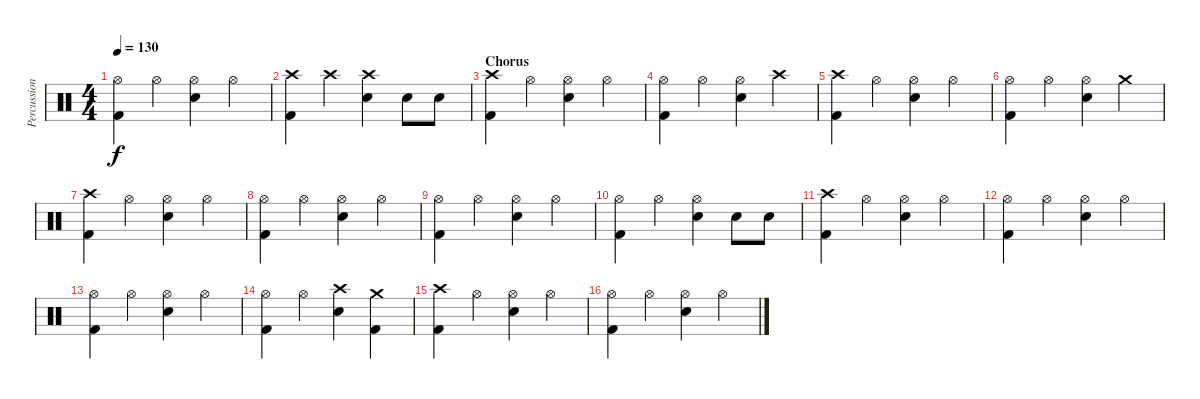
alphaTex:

\track ("Percussion" "Percussion") {instrument percussion}
\staff {score}
\articulation defaults
\ts (4 4)
\tempo 130
\clef neutral
\ks c
("Hi-Hat (open)" "Kick (hit) 2").4{dy f} "Hi-Hat (open)".4 ("Hi-Hat (open)" "Snare (hit) 2").4 "Hi-Hat (open)".4 |
("Crash high (hit)" "Kick (hit) 2").4 "Crash high (hit)".4 ("Crash high (hit)" "Snare (hit) 2").4 "Snare (hit) 2".8 "Snare (hit) 2".8 |
\section ("" "Chorus")
("Crash high (hit)" "Kick (hit) 2").4 "Hi-Hat (open)".4 ("Hi-Hat (open)" "Snare (hit) 2").4 "Hi-Hat (open)".4 |
("Hi-Hat (open)" "Kick (hit) 2").4 "Hi-Hat (open)".4 ("Hi-Hat (open)" "Snare (hit) 2").4 "Crash high (hit)".4 |
("Crash high (hit)" "Kick (hit) 2").4 "Hi-Hat (open)".4 ("Hi-Hat (open)" "Snare (hit) 2").4 "Hi-Hat (open)".4 |
("Hi-Hat (open)" "Kick (hit) 2").4 "Hi-Hat (open)".4 ("Hi-Hat (open)" "Snare (hit) 2").4 "Crash medium (hit)".4 |
("Crash high (hit)" "Kick (hit) 2").4 "Hi-Hat (open)".4 ("Hi-Hat (open)" "Snare (hit) 2").4 "Hi-Hat (open)".4 |
("Hi-Hat (open)" "Kick (hit) 2").4 "Hi-Hat (open)".4 ("Hi-Hat (open)" "Snare (hit) 2").4 "Hi-Hat (open)".4 |
("Hi-Hat (open)" "Kick (hit) 2").4 "Hi-Hat (open)".4 ("Hi-Hat (open)" "Snare (hit) 2").4 "Hi-Hat (open)".4 |
("Hi-Hat (open)" "Kick (hit) 2").4 "Hi-Hat (open)".4 ("Hi-Hat (open)" "Snare (hit) 2").4 "Snare (hit) 2".8 "Snare (hit) 2".8 |
("Crash high (hit)" "Kick (hit) 2").4 "Hi-Hat (open)".4 ("Hi-Hat (open)" "Snare (hit) 2").4 "Hi-Hat (open)".4 |
("Hi-Hat (open)" "Kick (hit) 2").4 "Hi-Hat (open)".4 ("Hi-Hat (open)" "Snare (hit) 2").4 "Hi-Hat (open)".4 |
("Hi-Hat (open)" "Kick (hit) 2").4 "Hi-Hat (open)".4 ("Hi-Hat (open)" "Snare (hit) 2").4 "Hi-Hat (open)".4 |
("Hi-Hat (open)" "Kick (hit) 2").4 "Hi-Hat (open)".4 ("Crash high (hit)" "Snare (hit) 2").4 ("Crash medium (hit)" "Kick (hit) 2").4 |
("Crash high (hit)" "Kick (hit) 2").4 "Hi-Hat (open)".4 ("Hi-Hat (open)" "Snare (hit) 2").4 "Hi-Hat (open)".4 |
("Hi-Hat (open)" "Kick (hit) 2").4 "Hi-Hat (open)".4 ("Hi-Hat (open)" "Snare (hit) 2").4 "Hi-Hat (open)".4
